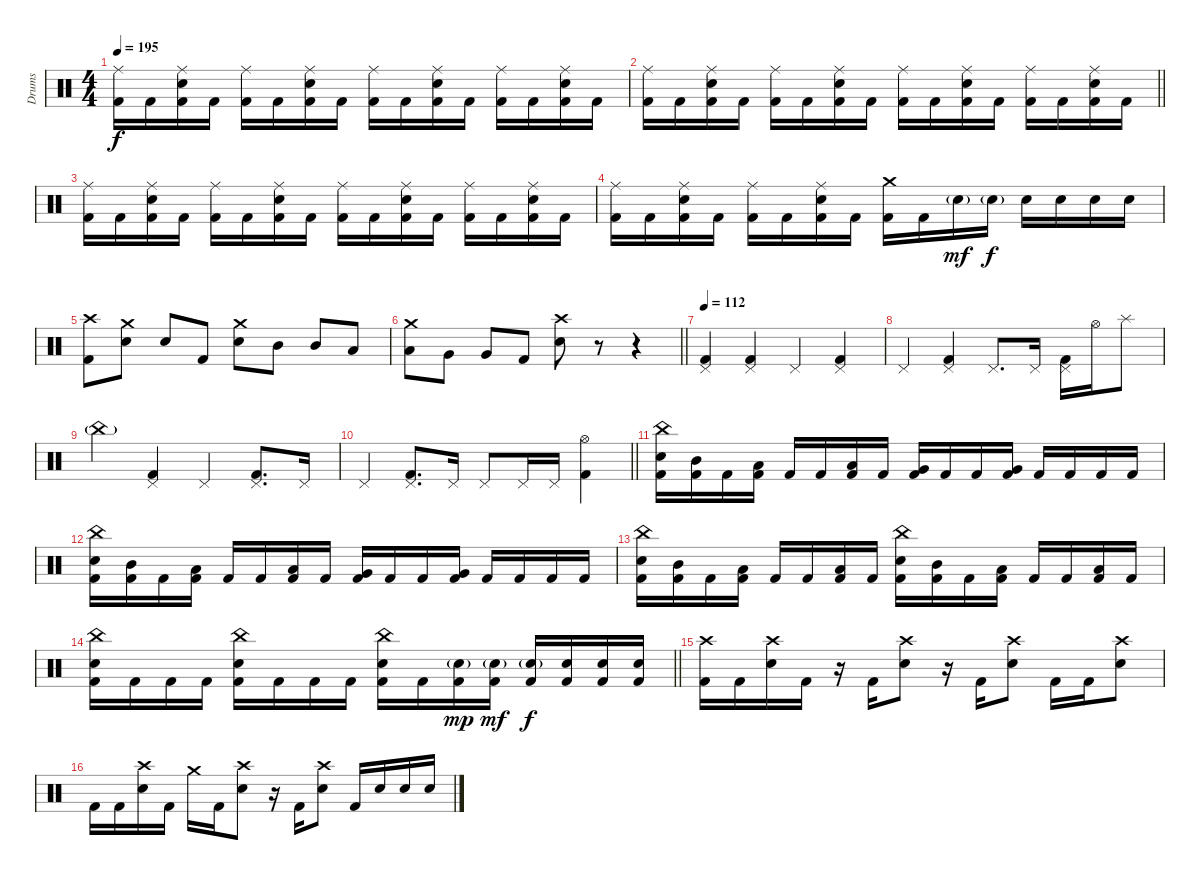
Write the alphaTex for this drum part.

\track ("Drums" "Drums") {instrument percussion}
\staff {score}
\articulation defaults
\ts (4 4)
\tempo 195
\clef neutral
\ks c
("Ride (middle)" "Kick (hit) 2").16{dy f} "Kick (hit) 2".16 ("Ride (middle)" "Electric Snare (hit)" "Kick (hit) 2").16 "Kick (hit) 2".16 ("Ride (middle)" "Kick (hit) 2").16 "Kick (hit) 2".16 ("Ride (middle)" "Electric Snare (hit)" "Kick (hit) 2").16 "Kick (hit) 2".16 ("Ride (middle)" "Kick (hit) 2").16 "Kick (hit) 2".16 ("Ride (middle)" "Electric Snare (hit)" "Kick (hit) 2").16 "Kick (hit) 2".16 ("Ride (middle)" "Kick (hit) 2").16 "Kick (hit) 2".16 ("Ride (middle)" "Electric Snare (hit)" "Kick (hit) 2").16 "Kick (hit) 2".16 |
\barLineRight lightlight
("Ride (middle)" "Kick (hit) 2").16 "Kick (hit) 2".16 ("Ride (middle)" "Electric Snare (hit)" "Kick (hit) 2").16 "Kick (hit) 2".16 ("Ride (middle)" "Kick (hit) 2").16 "Kick (hit) 2".16 ("Ride (middle)" "Electric Snare (hit)" "Kick (hit) 2").16 "Kick (hit) 2".16 ("Ride (middle)" "Kick (hit) 2").16 "Kick (hit) 2".16 ("Ride (middle)" "Electric Snare (hit)" "Kick (hit) 2").16 "Kick (hit) 2".16 ("Ride (middle)" "Kick (hit) 2").16 "Kick (hit) 2".16 ("Ride (middle)" "Electric Snare (hit)" "Kick (hit) 2").16 "Kick (hit) 2".16 |
("Ride (middle)" "Kick (hit) 2").16 "Kick (hit) 2".16 ("Ride (middle)" "Electric Snare (hit)" "Kick (hit) 2").16 "Kick (hit) 2".16 ("Ride (middle)" "Kick (hit) 2").16 "Kick (hit) 2".16 ("Ride (middle)" "Electric Snare (hit)" "Kick (hit) 2").16 "Kick (hit) 2".16 ("Ride (middle)" "Kick (hit) 2").16 "Kick (hit) 2".16 ("Ride (middle)" "Electric Snare (hit)" "Kick (hit) 2").16 "Kick (hit) 2".16 ("Ride (middle)" "Kick (hit) 2").16 "Kick (hit) 2".16 ("Ride (middle)" "Electric Snare (hit)" "Kick (hit) 2").16 "Kick (hit) 2".16 |
("Ride (middle)" "Kick (hit) 2").16 "Kick (hit) 2".16 ("Ride (middle)" "Electric Snare (hit)" "Kick (hit) 2").16 "Kick (hit) 2".16 ("Ride (middle)" "Kick (hit) 2").16 "Kick (hit) 2".16 ("Ride (middle)" "Electric Snare (hit)" "Kick (hit) 2").16 "Kick (hit) 2".16 ("Crash medium (hit)" "Kick (hit) 2").16 "Kick (hit) 2".16 "Electric Snare (hit)"{g}.16{dy mf} "Electric Snare (hit)"{g}.16{dy f} "Electric Snare (hit)".16 "Electric Snare (hit)".16 "Electric Snare (hit)".16 "Electric Snare (hit)".16 |
("Crash high (hit)" "Kick (hit) 2").8 ("Crash medium (hit)" "Electric Snare (hit)").8 "Electric Snare (hit)".8 "Kick (hit) 2".8 ("Crash medium (hit)" "Electric Snare (hit)").8 "Mid Tom (hit)".8 "Mid Tom (hit)".8 "Low Tom (hit)".8 |
\barLineRight lightlight
("Crash medium (hit)" "Low Tom (hit)").8 "Very Low Tom (hit)".8 "Very Low Tom (hit)".8 "Kick (hit) 2".8 ("Crash high (hit)" "Electric Snare (hit)").8 r.8 r.4 |
\tempo 112
("Pedal Hi-Hat (hit)" "Kick (hit) 2").4 ("Pedal Hi-Hat (hit)" "Kick (hit) 2").4 "Pedal Hi-Hat (hit)".4 ("Pedal Hi-Hat (hit)" "Kick (hit) 2").4 |
"Pedal Hi-Hat (hit)".4 ("Pedal Hi-Hat (hit)" "Kick (hit) 2").4 "Pedal Hi-Hat (hit)".8{d} "Pedal Hi-Hat (hit)".16 ("Pedal Hi-Hat (hit)" "Kick (hit) 2").16 "Hi-Hat (open)".16 "Splash (hit)".8 |
"China (hit)"{g}.4 ("Pedal Hi-Hat (hit)" "Kick (hit) 2").4 "Pedal Hi-Hat (hit)".4 ("Pedal Hi-Hat (hit)" "Kick (hit) 2").8{d} "Pedal Hi-Hat (hit)".16 |
\barLineRight lightlight "Pedal Hi-Hat (hit)".4
("Pedal Hi-Hat (hit)" "Kick (hit) 2").8{d} "Pedal Hi-Hat (hit)".16 "Pedal Hi-Hat (hit)".8 "Pedal Hi-Hat (hit)".16 "Pedal Hi-Hat (hit)".16 ("Hi-Hat (open)" "Kick (hit) 2").4 |
("China (hit)" "Electric Snare (hit)" "Kick (hit) 2").16 ("Mid Tom (hit)" "Kick (hit) 2").16 "Kick (hit) 2".16 ("Low Tom (hit)" "Kick (hit) 2").16 "Kick (hit) 2".16 "Kick (hit) 2".16 ("Low Tom (hit)" "Kick (hit) 2").16 "Kick (hit) 2".16 ("Very Low Tom (hit)" "Kick (hit) 2").16 "Kick (hit) 2".16 "Kick (hit) 2".16 ("Very Low Tom (hit)" "Kick (hit) 2").16 "Kick (hit) 2".16 "Kick (hit) 2".16 "Kick (hit) 2".16 "Kick (hit) 2".16 |
("China (hit)" "Electric Snare (hit)" "Kick (hit) 2").16 ("Mid Tom (hit)" "Kick (hit) 2").16 "Kick (hit) 2".16 ("Low Tom (hit)" "Kick (hit) 2").16 "Kick (hit) 2".16 "Kick (hit) 2".16 ("Low Tom (hit)" "Kick (hit) 2").16 "Kick (hit) 2".16 ("Very Low Tom (hit)" "Kick (hit) 2").16 "Kick (hit) 2".16 "Kick (hit) 2".16 ("Very Low Tom (hit)" "Kick (hit) 2").16 "Kick (hit) 2".16 "Kick (hit) 2".16 "Kick (hit) 2".16 "Kick (hit) 2".16 |
("China (hit)" "Electric Snare (hit)" "Kick (hit) 2").16 ("Mid Tom (hit)" "Kick (hit) 2").16 "Kick (hit) 2".16 ("Low Tom (hit)" "Kick (hit) 2").16 "Kick (hit) 2".16 "Kick (hit) 2".16 ("Low Tom (hit)" "Kick (hit) 2").16 "Kick (hit) 2".16 ("China (hit)" "Electric Snare (hit)" "Kick (hit) 2").16 ("Mid Tom (hit)" "Kick (hit) 2").16 "Kick (hit) 2".16 ("Low Tom (hit)" "Kick (hit) 2").16 "Kick (hit) 2".16 "Kick (hit) 2".16 ("Low Tom (hit)" "Kick (hit) 2").16 "Kick (hit) 2".16 |
\barLineRight lightlight
("China (hit)" "Electric Snare (hit)" "Kick (hit) 2").16 "Kick (hit) 2".16 "Kick (hit) 2".16 "Kick (hit) 2".16 ("China (hit)" "Electric Snare (hit)" "Kick (hit) 2").16 "Kick (hit) 2".16 "Kick (hit) 2".16 "Kick (hit) 2".16 ("China (hit)" "Electric Snare (hit)" "Kick (hit) 2").16 "Kick (hit) 2".16 ("Electric Snare (hit)"{g} "Kick (hit) 2").16{dy mp} ("Electric Snare (hit)"{g} "Kick (hit) 2").16{dy mf} ("Electric Snare (hit)"{g} "Kick (hit) 2").16{dy f} ("Electric Snare (hit)" "Kick (hit) 2").16 ("Electric Snare (hit)" "Kick (hit) 2").16 ("Electric Snare (hit)" "Kick (hit) 2").16 |
("Crash high (hit)" "Kick (hit) 2").16 "Kick (hit) 2".16 ("Crash high (hit)" "Electric Snare (hit)").16 "Kick (hit) 2".16 r.16 "Kick (hit) 2".16 ("Crash high (hit)" "Electric Snare (hit)").8 r.16 "Kick (hit) 2".16 ("Crash high (hit)" "Electric Snare (hit)").8 "Kick (hit) 2".16 "Kick (hit) 2".16 ("Crash high (hit)" "Electric Snare (hit)").8 |
"Kick (hit) 2".16 "Kick (hit) 2".16 ("Crash high (hit)" "Electric Snare (hit)").16 "Kick (hit) 2".16 "Crash medium (hit)".16 "Kick (hit) 2".16 ("Crash high (hit)" "Electric Snare (hit)").8 r.16 "Kick (hit) 2".16 ("Crash high (hit)" "Electric Snare (hit)").8 "Kick (hit) 2".16 "Electric Snare (hit)".16 "Electric Snare (hit)".16 "Electric Snare (hit)".16
